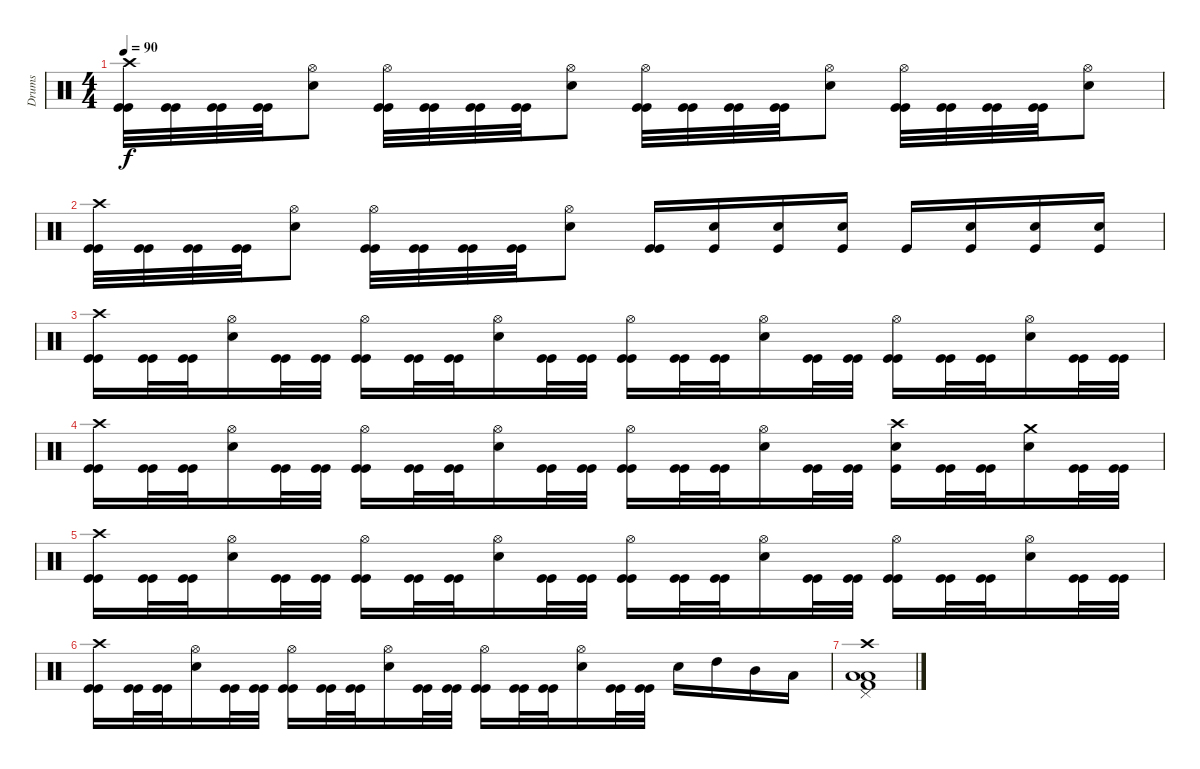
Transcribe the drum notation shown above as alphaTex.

\track ("Drums" "Drums") {instrument percussion}
\staff {score}
\articulation defaults
\ts (4 4)
\tempo 90
\clef neutral
\ks c
("Kick (hit)" "Kick (hit)" "Crash high (hit)").32{dy f} ("Kick (hit)" "Kick (hit)").32 ("Kick (hit)" "Kick (hit)").32 ("Kick (hit)" "Kick (hit)").32 ("Snare (hit) 2" "Hi-Hat (open)").8 ("Kick (hit)" "Kick (hit)" "Hi-Hat (open)").32 ("Kick (hit)" "Kick (hit)").32 ("Kick (hit)" "Kick (hit)").32 ("Kick (hit)" "Kick (hit)").32 ("Snare (hit) 2" "Hi-Hat (open)").8 ("Kick (hit)" "Kick (hit)" "Hi-Hat (open)").32 ("Kick (hit)" "Kick (hit)").32 ("Kick (hit)" "Kick (hit)").32 ("Kick (hit)" "Kick (hit)").32 ("Snare (hit) 2" "Hi-Hat (open)").8 ("Kick (hit)" "Kick (hit)" "Hi-Hat (open)").32 ("Kick (hit)" "Kick (hit)").32 ("Kick (hit)" "Kick (hit)").32 ("Kick (hit)" "Kick (hit)").32 ("Snare (hit) 2" "Hi-Hat (open)").8 |
("Kick (hit)" "Kick (hit)" "Crash high (hit)").32 ("Kick (hit)" "Kick (hit)").32 ("Kick (hit)" "Kick (hit)").32 ("Kick (hit)" "Kick (hit)").32 ("Snare (hit) 2" "Hi-Hat (open)").8 ("Kick (hit)" "Kick (hit)" "Hi-Hat (open)").32 ("Kick (hit)" "Kick (hit)").32 ("Kick (hit)" "Kick (hit)").32 ("Kick (hit)" "Kick (hit)").32 ("Snare (hit) 2" "Hi-Hat (open)").8 ("Kick (hit)" "Kick (hit)").16 ("Kick (hit)" "Snare (hit) 2").16 ("Kick (hit)" "Snare (hit) 2").16 ("Kick (hit)" "Snare (hit) 2").16 "Kick (hit)".16 ("Kick (hit)" "Snare (hit) 2").16 ("Kick (hit)" "Snare (hit) 2").16 ("Kick (hit)" "Snare (hit) 2").16 |
("Kick (hit)" "Kick (hit)" "Crash high (hit)").16 ("Kick (hit)" "Kick (hit)").32 ("Kick (hit)" "Kick (hit)").32 ("Snare (hit) 2" "Hi-Hat (open)").16 ("Kick (hit)" "Kick (hit)").32 ("Kick (hit)" "Kick (hit)").32 ("Kick (hit)" "Kick (hit)" "Hi-Hat (open)").16 ("Kick (hit)" "Kick (hit)").32 ("Kick (hit)" "Kick (hit)").32 ("Snare (hit) 2" "Hi-Hat (open)").16 ("Kick (hit)" "Kick (hit)").32 ("Kick (hit)" "Kick (hit)").32 ("Kick (hit)" "Kick (hit)" "Hi-Hat (open)").16 ("Kick (hit)" "Kick (hit)").32 ("Kick (hit)" "Kick (hit)").32 ("Snare (hit) 2" "Hi-Hat (open)").16 ("Kick (hit)" "Kick (hit)").32 ("Kick (hit)" "Kick (hit)").32 ("Kick (hit)" "Kick (hit)" "Hi-Hat (open)").16 ("Kick (hit)" "Kick (hit)").32 ("Kick (hit)" "Kick (hit)").32 ("Snare (hit) 2" "Hi-Hat (open)").16 ("Kick (hit)" "Kick (hit)").32 ("Kick (hit)" "Kick (hit)").32 |
("Kick (hit)" "Kick (hit)" "Crash high (hit)").16 ("Kick (hit)" "Kick (hit)").32 ("Kick (hit)" "Kick (hit)").32 ("Snare (hit) 2" "Hi-Hat (open)").16 ("Kick (hit)" "Kick (hit)").32 ("Kick (hit)" "Kick (hit)").32 ("Kick (hit)" "Kick (hit)" "Hi-Hat (open)").16 ("Kick (hit)" "Kick (hit)").32 ("Kick (hit)" "Kick (hit)").32 ("Snare (hit) 2" "Hi-Hat (open)").16 ("Kick (hit)" "Kick (hit)").32 ("Kick (hit)" "Kick (hit)").32 ("Kick (hit)" "Kick (hit)" "Hi-Hat (open)").16 ("Kick (hit)" "Kick (hit)").32 ("Kick (hit)" "Kick (hit)").32 ("Snare (hit) 2" "Hi-Hat (open)").16 ("Kick (hit)" "Kick (hit)").32 ("Kick (hit)" "Kick (hit)").32 ("Kick (hit)" "Snare (hit) 2" "Crash high (hit)").16 ("Kick (hit)" "Kick (hit)").32 ("Kick (hit)" "Kick (hit)").32 ("Snare (hit) 2" "Crash medium (hit)").16 ("Kick (hit)" "Kick (hit)").32 ("Kick (hit)" "Kick (hit)").32 |
("Kick (hit)" "Kick (hit)" "Crash high (hit)").16 ("Kick (hit)" "Kick (hit)").32 ("Kick (hit)" "Kick (hit)").32 ("Snare (hit) 2" "Hi-Hat (open)").16 ("Kick (hit)" "Kick (hit)").32 ("Kick (hit)" "Kick (hit)").32 ("Kick (hit)" "Kick (hit)" "Hi-Hat (open)").16 ("Kick (hit)" "Kick (hit)").32 ("Kick (hit)" "Kick (hit)").32 ("Snare (hit) 2" "Hi-Hat (open)").16 ("Kick (hit)" "Kick (hit)").32 ("Kick (hit)" "Kick (hit)").32 ("Kick (hit)" "Kick (hit)" "Hi-Hat (open)").16 ("Kick (hit)" "Kick (hit)").32 ("Kick (hit)" "Kick (hit)").32 ("Snare (hit) 2" "Hi-Hat (open)").16 ("Kick (hit)" "Kick (hit)").32 ("Kick (hit)" "Kick (hit)").32 ("Kick (hit)" "Kick (hit)" "Hi-Hat (open)").16 ("Kick (hit)" "Kick (hit)").32 ("Kick (hit)" "Kick (hit)").32 ("Snare (hit) 2" "Hi-Hat (open)").16 ("Kick (hit)" "Kick (hit)").32 ("Kick (hit)" "Kick (hit)").32 |
("Kick (hit)" "Kick (hit)" "Crash high (hit)").16 ("Kick (hit)" "Kick (hit)").32 ("Kick (hit)" "Kick (hit)").32 ("Snare (hit) 2" "Hi-Hat (open)").16 ("Kick (hit)" "Kick (hit)").32 ("Kick (hit)" "Kick (hit)").32 ("Kick (hit)" "Kick (hit)" "Hi-Hat (open)").16 ("Kick (hit)" "Kick (hit)").32 ("Kick (hit)" "Kick (hit)").32 ("Snare (hit) 2" "Hi-Hat (open)").16 ("Kick (hit)" "Kick (hit)").32 ("Kick (hit)" "Kick (hit)").32 ("Kick (hit)" "Kick (hit)" "Hi-Hat (open)").16 ("Kick (hit)" "Kick (hit)").32 ("Kick (hit)" "Kick (hit)").32 ("Snare (hit) 2" "Hi-Hat (open)").16 ("Kick (hit)" "Kick (hit)").32 ("Kick (hit)" "Kick (hit)").32 "Snare (hit) 2".16 "High Tom (hit)".16 "Mid Tom (hit)".16 "Low Tom (hit)".16 |
("Crash high (hit)" "Low Tom (hit)" "Pedal Hi-Hat (hit)" "Kick (hit) 2" "Low Floor Tom (hit)").1
